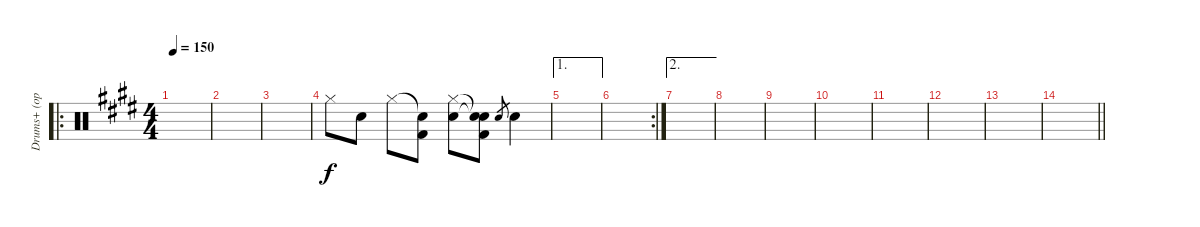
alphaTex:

\track ("Drums+ (optional)" "Drums+ (op") {instrument percussion}
\staff {score}
\articulation defaults
\ro
\ts (4 4)
\tempo 150
\clef neutral
\ks e
|
|
|
"Hi-Hat (closed)".8 "Snare (hit) 2".8 "Hi-Hat (closed)".8 ("Snare (hit)"{t} "Kick (hit) 2").8 ("Hi-Hat (closed)" "Snare (hit) 2").8 ("Snare (hit)"{t} "Snare (hit)"{t} "Kick (hit) 2").8 "Snare (hit) 2".8{gr} "Snare (hit) 2".4 |
\ae 1
|
\rc 2
|
\ae 2
|
|
|
|
|
|
|
\barLineRight lightlight
